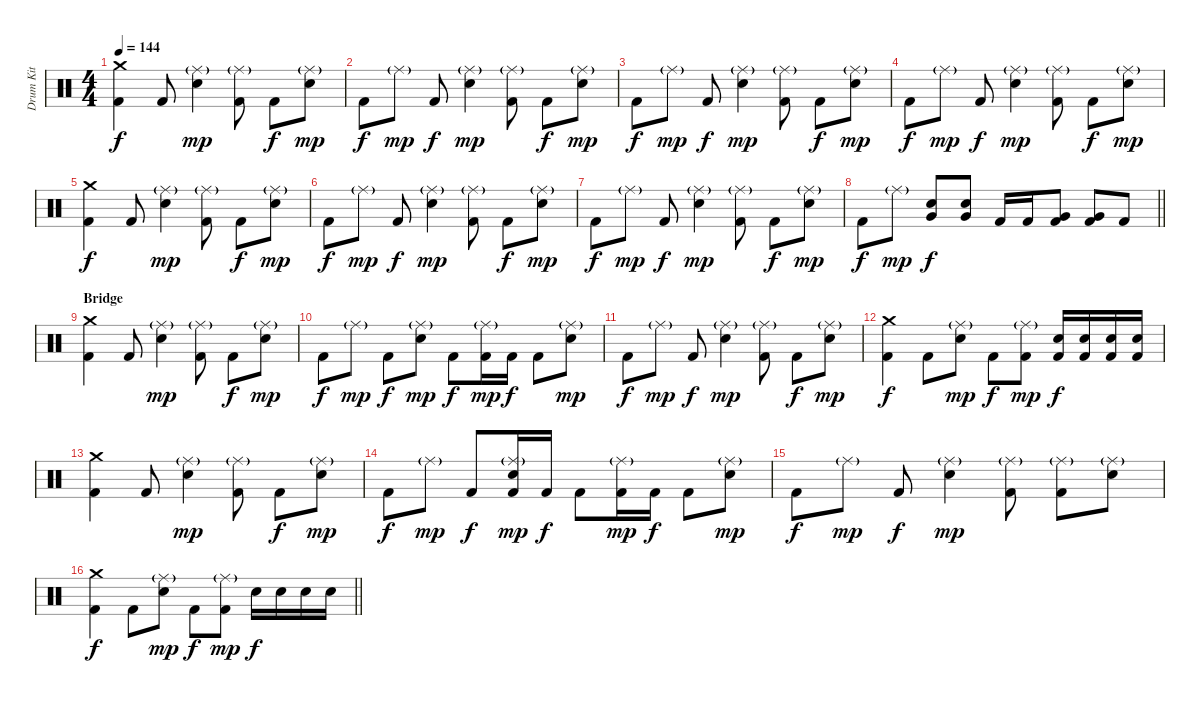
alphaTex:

\track ("Drum Kit" "Drum Kit") {instrument percussion}
\staff {score}
\articulation defaults
\ts (4 4)
\tempo 144
\clef neutral
\ks c
("Crash medium (hit)" "Kick (hit) 2").4{dy f} "Kick (hit) 2".8 ("Ride (middle)"{g} "Electric Snare (hit)").4{dy mp} ("Ride (middle)"{g} "Kick (hit) 2").8 "Kick (hit) 2".8{dy f} ("Ride (middle)"{g} "Electric Snare (hit)").8{dy mp} |
"Kick (hit) 2".8{dy f} "Ride (middle)"{g}.8{dy mp} "Kick (hit) 2".8{dy f} ("Ride (middle)"{g} "Electric Snare (hit)").4{dy mp} ("Ride (middle)"{g} "Kick (hit) 2").8 "Kick (hit) 2".8{dy f} ("Ride (middle)"{g} "Electric Snare (hit)").8{dy mp} |
"Kick (hit) 2".8{dy f} "Ride (middle)"{g}.8{dy mp} "Kick (hit) 2".8{dy f} ("Ride (middle)"{g} "Electric Snare (hit)").4{dy mp} ("Ride (middle)"{g} "Kick (hit) 2").8 "Kick (hit) 2".8{dy f} ("Ride (middle)"{g} "Electric Snare (hit)").8{dy mp} |
"Kick (hit) 2".8{dy f} "Ride (middle)"{g}.8{dy mp} "Kick (hit) 2".8{dy f} ("Ride (middle)"{g} "Electric Snare (hit)").4{dy mp} ("Ride (middle)"{g} "Kick (hit) 2").8 "Kick (hit) 2".8{dy f} ("Ride (middle)"{g} "Electric Snare (hit)").8{dy mp} |
("Crash medium (hit)" "Kick (hit) 2").4{dy f} "Kick (hit) 2".8 ("Ride (middle)"{g} "Electric Snare (hit)").4{dy mp} ("Ride (middle)"{g} "Kick (hit) 2").8 "Kick (hit) 2".8{dy f} ("Ride (middle)"{g} "Electric Snare (hit)").8{dy mp} |
"Kick (hit) 2".8{dy f} "Ride (middle)"{g}.8{dy mp} "Kick (hit) 2".8{dy f} ("Ride (middle)"{g} "Electric Snare (hit)").4{dy mp} ("Ride (middle)"{g} "Kick (hit) 2").8 "Kick (hit) 2".8{dy f} ("Ride (middle)"{g} "Electric Snare (hit)").8{dy mp} |
"Kick (hit) 2".8{dy f} "Ride (middle)"{g}.8{dy mp} "Kick (hit) 2".8{dy f} ("Ride (middle)"{g} "Electric Snare (hit)").4{dy mp} ("Ride (middle)"{g} "Kick (hit) 2").8 "Kick (hit) 2".8{dy f} ("Ride (middle)"{g} "Electric Snare (hit)").8{dy mp} |
\barLineRight lightlight "Kick (hit) 2".8{dy f} "Ride (middle)"{g}.8{dy mp}
("Very Low Tom (hit)" "Electric Snare (hit)").8{dy f} ("Very Low Tom (hit)" "Electric Snare (hit)").8 "Kick (hit) 2".16 "Kick (hit) 2".16 ("Very Low Tom (hit)" "Kick (hit) 2").8 ("Very Low Tom (hit)" "Kick (hit) 2").8 "Kick (hit) 2".8 |
\section ("" "Bridge")
("Crash medium (hit)" "Kick (hit) 2").4 "Kick (hit) 2".8 ("Ride (middle)"{g} "Electric Snare (hit)").4{dy mp} ("Ride (middle)"{g} "Kick (hit) 2").8 "Kick (hit) 2".8{dy f} ("Ride (middle)"{g} "Electric Snare (hit)").8{dy mp} |
"Kick (hit) 2".8{dy f} "Ride (middle)"{g}.8{dy mp} "Kick (hit) 2".8{dy f} ("Ride (middle)"{g} "Electric Snare (hit)").8{dy mp} "Kick (hit) 2".8{dy f} ("Ride (middle)"{g} "Kick (hit) 2").16{dy mp} "Kick (hit) 2".16{dy f} "Kick (hit) 2".8 ("Ride (middle)"{g} "Electric Snare (hit)").8{dy mp} |
"Kick (hit) 2".8{dy f} "Ride (middle)"{g}.8{dy mp} "Kick (hit) 2".8{dy f} ("Ride (middle)"{g} "Electric Snare (hit)").4{dy mp} ("Ride (middle)"{g} "Kick (hit) 2").8 "Kick (hit) 2".8{dy f} ("Ride (middle)"{g} "Electric Snare (hit)").8{dy mp} |
("Crash medium (hit)" "Kick (hit) 2").4{dy f} "Kick (hit) 2".8 ("Ride (middle)"{g} "Electric Snare (hit)").8{dy mp} "Kick (hit) 2".8{dy f} ("Ride (middle)"{g} "Kick (hit) 2").8{dy mp} ("Electric Snare (hit)" "Kick (hit) 2").16{dy f} ("Electric Snare (hit)" "Kick (hit) 2").16 ("Electric Snare (hit)" "Kick (hit) 2").16 ("Electric Snare (hit)" "Kick (hit) 2").16 |
("Crash medium (hit)" "Kick (hit) 2").4 "Kick (hit) 2".8 ("Ride (middle)"{g} "Electric Snare (hit)").4{dy mp} ("Ride (middle)"{g} "Kick (hit) 2").8 "Kick (hit) 2".8{dy f} ("Ride (middle)"{g} "Electric Snare (hit)").8{dy mp} |
"Kick (hit) 2".8{dy f} "Ride (middle)"{g}.8{dy mp} "Kick (hit) 2".8{dy f} ("Ride (middle)"{g} "Electric Snare (hit)" "Kick (hit) 2").16{dy mp} "Kick (hit) 2".16{dy f} "Kick (hit) 2".8 ("Ride (middle)"{g} "Kick (hit) 2").16{dy mp} "Kick (hit) 2".16{dy f} "Kick (hit) 2".8 ("Ride (middle)"{g} "Electric Snare (hit)").8{dy mp} |
"Kick (hit) 2".8{dy f} "Ride (middle)"{g}.8{dy mp} "Kick (hit) 2".8{dy f} ("Ride (middle)"{g} "Electric Snare (hit)").4{dy mp} ("Ride (middle)"{g} "Kick (hit) 2").8 ("Ride (middle)"{g} "Kick (hit) 2").8 ("Ride (middle)"{g} "Electric Snare (hit)").8 |
\barLineRight lightlight
("Crash medium (hit)" "Kick (hit) 2").4{dy f} "Kick (hit) 2".8 ("Ride (middle)"{g} "Electric Snare (hit)").8{dy mp} "Kick (hit) 2".8{dy f} ("Ride (middle)"{g} "Kick (hit) 2").8{dy mp} "Electric Snare (hit)".16{dy f} "Electric Snare (hit)".16 "Electric Snare (hit)".16 "Electric Snare (hit)".16
